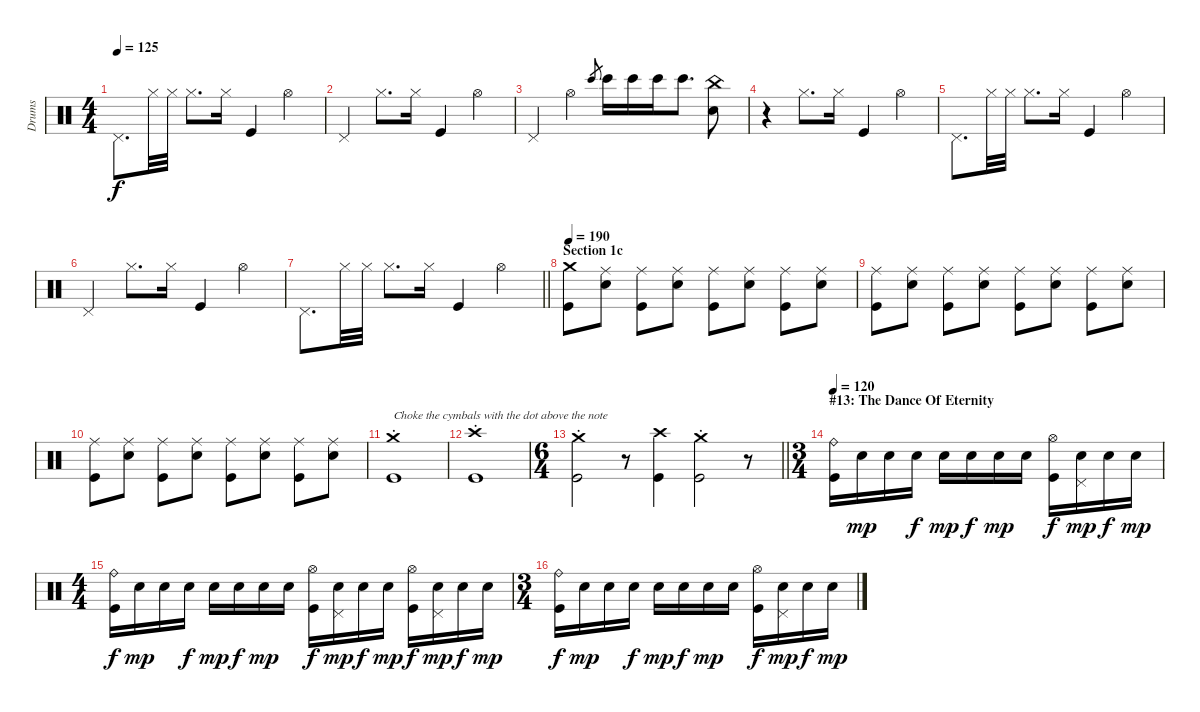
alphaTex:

\track ("Drums" "Drums") {instrument percussion}
\staff {score}
\articulation defaults
\ts (4 4)
\tempo 125
\clef neutral
\ks c "Pedal Hi-Hat (hit)".8{d dy f} "Hi-Hat (closed)".32 "Hi-Hat (closed)".32 "Hi-Hat (closed)".8{d} "Hi-Hat (closed)".16 "Kick (hit)".4 "Hi-Hat (open)".4
|
"Pedal Hi-Hat (hit)".4 "Hi-Hat (closed)".8{d} "Hi-Hat (closed)".16 "Kick (hit)".4 "Hi-Hat (open)".4 |
"Pedal Hi-Hat (hit)".4 "Hi-Hat (open)".4 "Bongo High (hit)".8{gr} "Bongo High (hit)".16 "Bongo High (hit)".16 "Bongo High (hit)".16 "Bongo High (hit)".8{d} ("China (hit)" "Snare (hit) 2").8 |
r.4 "Hi-Hat (closed)".8{d} "Hi-Hat (closed)".16 "Kick (hit)".4 "Hi-Hat (open)".4 |
"Pedal Hi-Hat (hit)".8{d} "Hi-Hat (closed)".32 "Hi-Hat (closed)".32 "Hi-Hat (closed)".8{d} "Hi-Hat (closed)".16 "Kick (hit)".4 "Hi-Hat (open)".4 |
"Pedal Hi-Hat (hit)".4 "Hi-Hat (closed)".8{d} "Hi-Hat (closed)".16 "Kick (hit)".4 "Hi-Hat (open)".4 |
\barLineRight lightlight "Pedal Hi-Hat (hit)".8{d} "Hi-Hat (closed)".32 "Hi-Hat (closed)".32 "Hi-Hat (closed)".8{d} "Hi-Hat (closed)".16 "Kick (hit)".4 "Hi-Hat (open)".4
|
\section ("" "Section 1c")
\tempo 190
("Crash medium (hit)" "Kick (hit)").8 ("Ride (middle)" "Snare (hit) 2").8 ("Ride (middle)" "Kick (hit)").8 ("Ride (middle)" "Snare (hit) 2").8 ("Ride (middle)" "Kick (hit)").8 ("Ride (middle)" "Snare (hit) 2").8 ("Ride (middle)" "Kick (hit)").8 ("Ride (middle)" "Snare (hit) 2").8 |
("Ride (middle)" "Kick (hit)").8 ("Ride (middle)" "Snare (hit) 2").8 ("Ride (middle)" "Kick (hit)").8 ("Ride (middle)" "Snare (hit) 2").8 ("Ride (middle)" "Kick (hit)").8 ("Ride (middle)" "Snare (hit) 2").8 ("Ride (middle)" "Kick (hit)").8 ("Ride (middle)" "Snare (hit) 2").8 |
("Ride (middle)" "Kick (hit)").8 ("Ride (middle)" "Snare (hit) 2").8 ("Ride (middle)" "Kick (hit)").8 ("Ride (middle)" "Snare (hit) 2").8 ("Ride (middle)" "Kick (hit)").8 ("Ride (middle)" "Snare (hit) 2").8 ("Ride (middle)" "Kick (hit)").8 ("Ride (middle)" "Snare (hit) 2").8 |
("Crash medium (hit)"{st} "Kick (hit)"{st}).1{txt "Choke the cymbals with the dot above the note"} |
("Crash high (hit)"{st} "Kick (hit)"{st}).1 |
\ts (6 4)
\barLineRight lightlight
("Crash medium (hit)"{st} "Kick (hit)"{st}).2 r.8 ("Crash high (hit)" "Kick (hit)").4 ("Crash medium (hit)"{st} "Kick (hit)"{st}).2 r.8 |
\ts (3 4)
\section ("" "#13: The Dance Of Eternity")
\tempo 120
("Ride (bell)" "Kick (hit)").16 "Snare (hit) 2".16{dy mp} "Snare (hit) 2".16 "Snare (hit) 2".16{dy f} "Snare (hit) 2".16{dy mp} "Snare (hit) 2".16{dy f} "Snare (hit) 2".16{dy mp} "Snare (hit) 2".16 ("Hi-Hat (open)" "Kick (hit)").16{dy f} ("Pedal Hi-Hat (hit)" "Snare (hit) 2").16{dy mp} "Snare (hit) 2".16{dy f} "Snare (hit) 2".16{dy mp} |
\ts (4 4)
("Ride (bell)" "Kick (hit)").16{dy f} "Snare (hit) 2".16{dy mp} "Snare (hit) 2".16 "Snare (hit) 2".16{dy f} "Snare (hit) 2".16{dy mp} "Snare (hit) 2".16{dy f} "Snare (hit) 2".16{dy mp} "Snare (hit) 2".16 ("Hi-Hat (open)" "Kick (hit)").16{dy f} ("Pedal Hi-Hat (hit)" "Snare (hit) 2").16{dy mp} "Snare (hit) 2".16{dy f} "Snare (hit) 2".16{dy mp} ("Hi-Hat (open)" "Kick (hit)").16{dy f} ("Pedal Hi-Hat (hit)" "Snare (hit) 2").16{dy mp} "Snare (hit) 2".16{dy f} "Snare (hit) 2".16{dy mp} |
\ts (3 4)
("Ride (bell)" "Kick (hit)").16{dy f} "Snare (hit) 2".16{dy mp} "Snare (hit) 2".16 "Snare (hit) 2".16{dy f} "Snare (hit) 2".16{dy mp} "Snare (hit) 2".16{dy f} "Snare (hit) 2".16{dy mp} "Snare (hit) 2".16 ("Hi-Hat (open)" "Kick (hit)").16{dy f} ("Pedal Hi-Hat (hit)" "Snare (hit) 2").16{dy mp} "Snare (hit) 2".16{dy f} "Snare (hit) 2".16{dy mp}
